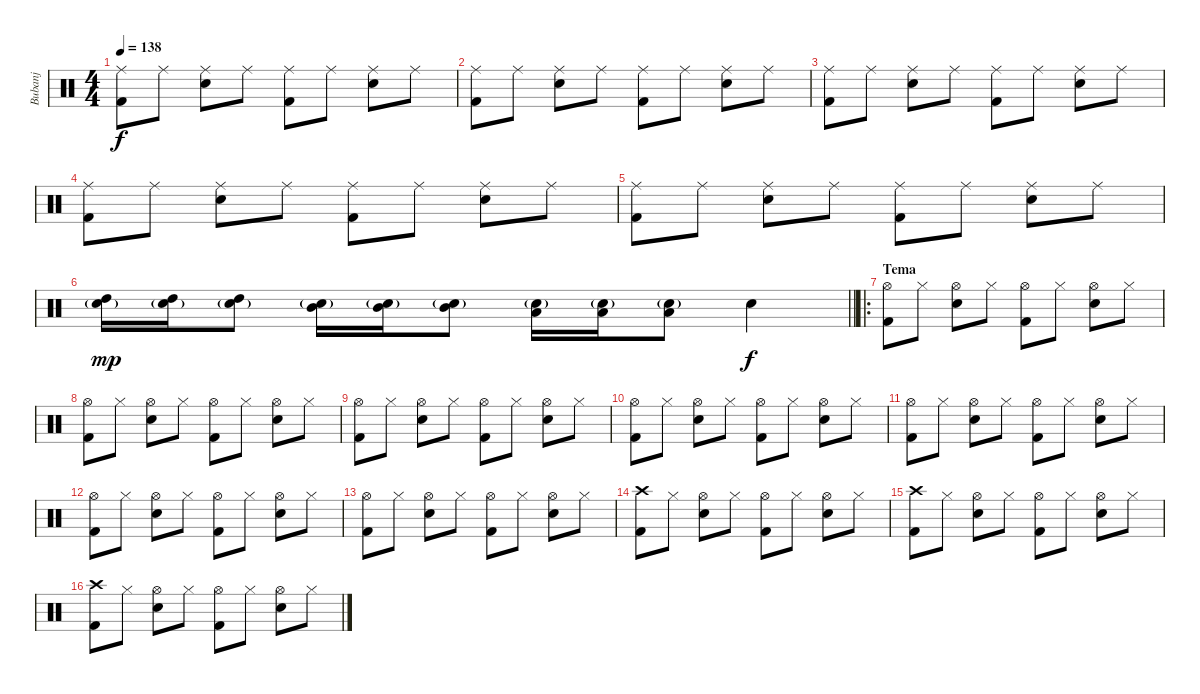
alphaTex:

\track ("Bubanj" "Bubanj") {instrument percussion}
\staff {score}
\articulation defaults
\ts (4 4)
\tempo 138
\clef neutral
\ks c
("Ride (middle)" "Kick (hit) 2").8{dy f} "Ride (middle)".8 ("Ride (middle)" "Snare (hit) 2").8 "Ride (middle)".8 ("Ride (middle)" "Kick (hit) 2").8 "Ride (middle)".8 ("Ride (middle)" "Snare (hit) 2").8 "Ride (middle)".8 |
("Ride (middle)" "Kick (hit) 2").8 "Ride (middle)".8 ("Ride (middle)" "Snare (hit) 2").8 "Ride (middle)".8 ("Ride (middle)" "Kick (hit) 2").8 "Ride (middle)".8 ("Ride (middle)" "Snare (hit) 2").8 "Ride (middle)".8 |
("Ride (middle)" "Kick (hit) 2").8 "Ride (middle)".8 ("Ride (middle)" "Snare (hit) 2").8 "Ride (middle)".8 ("Ride (middle)" "Kick (hit) 2").8 "Ride (middle)".8 ("Ride (middle)" "Snare (hit) 2").8 "Ride (middle)".8 |
("Ride (middle)" "Kick (hit) 2").8 "Ride (middle)".8 ("Ride (middle)" "Snare (hit) 2").8 "Ride (middle)".8 ("Ride (middle)" "Kick (hit) 2").8 "Ride (middle)".8 ("Ride (middle)" "Snare (hit) 2").8 "Ride (middle)".8 |
("Ride (middle)" "Kick (hit) 2").8 "Ride (middle)".8 ("Ride (middle)" "Snare (hit) 2").8 "Ride (middle)".8 ("Ride (middle)" "Kick (hit) 2").8 "Ride (middle)".8 ("Ride (middle)" "Snare (hit) 2").8 "Ride (middle)".8 |
\barLineRight lightlight
("High Tom (hit)" "Snare (hit) 2"{g}).16{dy mp} ("High Tom (hit)" "Snare (hit) 2"{g}).16 ("High Tom (hit)" "Snare (hit) 2"{g}).8 ("Mid Tom (hit)" "Snare (hit) 2"{g}).16 ("Mid Tom (hit)" "Snare (hit) 2"{g}).16 ("Mid Tom (hit)" "Snare (hit) 2"{g}).8 ("Low Tom (hit)" "Snare (hit) 2"{g}).16 ("Low Tom (hit)" "Snare (hit) 2"{g}).16 ("Low Tom (hit)" "Snare (hit) 2"{g}).8 "Snare (hit) 2".4{dy f} |
\ro
\section ("" "Tema")
("Hi-Hat (open)" "Kick (hit) 2").8 "Hi-Hat (closed)".8 ("Hi-Hat (open)" "Snare (hit) 2").8 "Hi-Hat (closed)".8 ("Hi-Hat (open)" "Kick (hit) 2").8 "Hi-Hat (closed)".8 ("Hi-Hat (open)" "Snare (hit) 2").8 "Hi-Hat (closed)".8 |
("Hi-Hat (open)" "Kick (hit) 2").8 "Hi-Hat (closed)".8 ("Hi-Hat (open)" "Snare (hit) 2").8 "Hi-Hat (closed)".8 ("Hi-Hat (open)" "Kick (hit) 2").8 "Hi-Hat (closed)".8 ("Hi-Hat (open)" "Snare (hit) 2").8 "Hi-Hat (closed)".8 |
("Hi-Hat (open)" "Kick (hit) 2").8 "Hi-Hat (closed)".8 ("Hi-Hat (open)" "Snare (hit) 2").8 "Hi-Hat (closed)".8 ("Hi-Hat (open)" "Kick (hit) 2").8 "Hi-Hat (closed)".8 ("Hi-Hat (open)" "Snare (hit) 2").8 "Hi-Hat (closed)".8 |
("Hi-Hat (open)" "Kick (hit) 2").8 "Hi-Hat (closed)".8 ("Hi-Hat (open)" "Snare (hit) 2").8 "Hi-Hat (closed)".8 ("Hi-Hat (open)" "Kick (hit) 2").8 "Hi-Hat (closed)".8 ("Hi-Hat (open)" "Snare (hit) 2").8 "Hi-Hat (closed)".8 |
("Hi-Hat (open)" "Kick (hit) 2").8 "Hi-Hat (closed)".8 ("Hi-Hat (open)" "Snare (hit) 2").8 "Hi-Hat (closed)".8 ("Hi-Hat (open)" "Kick (hit) 2").8 "Hi-Hat (closed)".8 ("Hi-Hat (open)" "Snare (hit) 2").8 "Hi-Hat (closed)".8 |
("Hi-Hat (open)" "Kick (hit) 2").8 "Hi-Hat (closed)".8 ("Hi-Hat (open)" "Snare (hit) 2").8 "Hi-Hat (closed)".8 ("Hi-Hat (open)" "Kick (hit) 2").8 "Hi-Hat (closed)".8 ("Hi-Hat (open)" "Snare (hit) 2").8 "Hi-Hat (closed)".8 |
("Hi-Hat (open)" "Kick (hit) 2").8 "Hi-Hat (closed)".8 ("Hi-Hat (open)" "Snare (hit) 2").8 "Hi-Hat (closed)".8 ("Hi-Hat (open)" "Kick (hit) 2").8 "Hi-Hat (closed)".8 ("Hi-Hat (open)" "Snare (hit) 2").8 "Hi-Hat (closed)".8 |
("Crash high (hit)" "Kick (hit) 2").8 "Hi-Hat (closed)".8 ("Hi-Hat (open)" "Snare (hit) 2").8 "Hi-Hat (closed)".8 ("Hi-Hat (open)" "Kick (hit) 2").8 "Hi-Hat (closed)".8 ("Hi-Hat (open)" "Snare (hit) 2").8 "Hi-Hat (closed)".8 |
("Crash high (hit)" "Kick (hit) 2").8 "Hi-Hat (closed)".8 ("Hi-Hat (open)" "Snare (hit) 2").8 "Hi-Hat (closed)".8 ("Hi-Hat (open)" "Kick (hit) 2").8 "Hi-Hat (closed)".8 ("Hi-Hat (open)" "Snare (hit) 2").8 "Hi-Hat (closed)".8 |
("Crash high (hit)" "Kick (hit) 2").8 "Hi-Hat (closed)".8 ("Hi-Hat (open)" "Snare (hit) 2").8 "Hi-Hat (closed)".8 ("Hi-Hat (open)" "Kick (hit) 2").8 "Hi-Hat (closed)".8 ("Hi-Hat (open)" "Snare (hit) 2").8 "Hi-Hat (closed)".8
